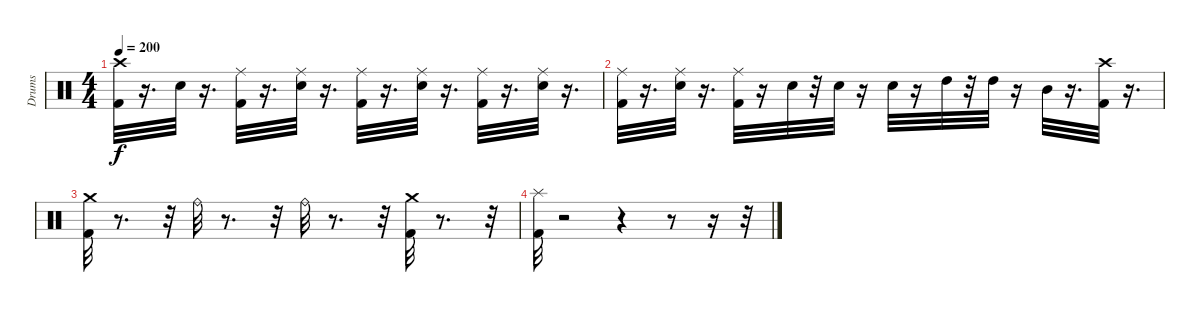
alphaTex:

\track ("Drums" "Drums") {instrument percussion}
\staff {score}
\articulation defaults
\ts (4 4)
\tempo 200
\clef neutral
\ks c
("Kick (hit) 2" "Crash high (hit)").32{dy f} r.16{d} "Electric Snare (hit)".32 r.16{d} ("Kick (hit) 2" "Ride (middle)").32 r.16{d} ("Electric Snare (hit)" "Ride (middle)").32 r.16{d} ("Kick (hit) 2" "Ride (middle)").32 r.16{d} ("Electric Snare (hit)" "Ride (middle)").32 r.16{d} ("Kick (hit) 2" "Ride (middle)").32 r.16{d} ("Electric Snare (hit)" "Ride (middle)").32 r.16{d} |
("Kick (hit) 2" "Ride (middle)").32 r.16{d} ("Electric Snare (hit)" "Ride (middle)").32 r.16{d} ("Kick (hit) 2" "Ride (middle)").32 r.16 "Electric Snare (hit)".32 r.32 "Electric Snare (hit)".32 r.16 "Electric Snare (hit)".32 r.16 "High Tom (hit)".32 r.32 "High Tom (hit)".32 r.16 "Mid Tom (hit)".32 r.16{d} ("Kick (hit) 2" "Crash high (hit)").32 r.16{d} |
("Kick (hit) 2" "Crash medium (hit)").32 r.8{d} r.32 "Ride (bell)".32 r.8{d} r.32 "Ride (bell)".32 r.8{d} r.32 ("Kick (hit) 2" "Crash medium (hit)").32 r.8{d} r.32 |
("Kick (hit) 2" "Splash (hit)").32 r.2 r.4 r.8 r.16 r.32
